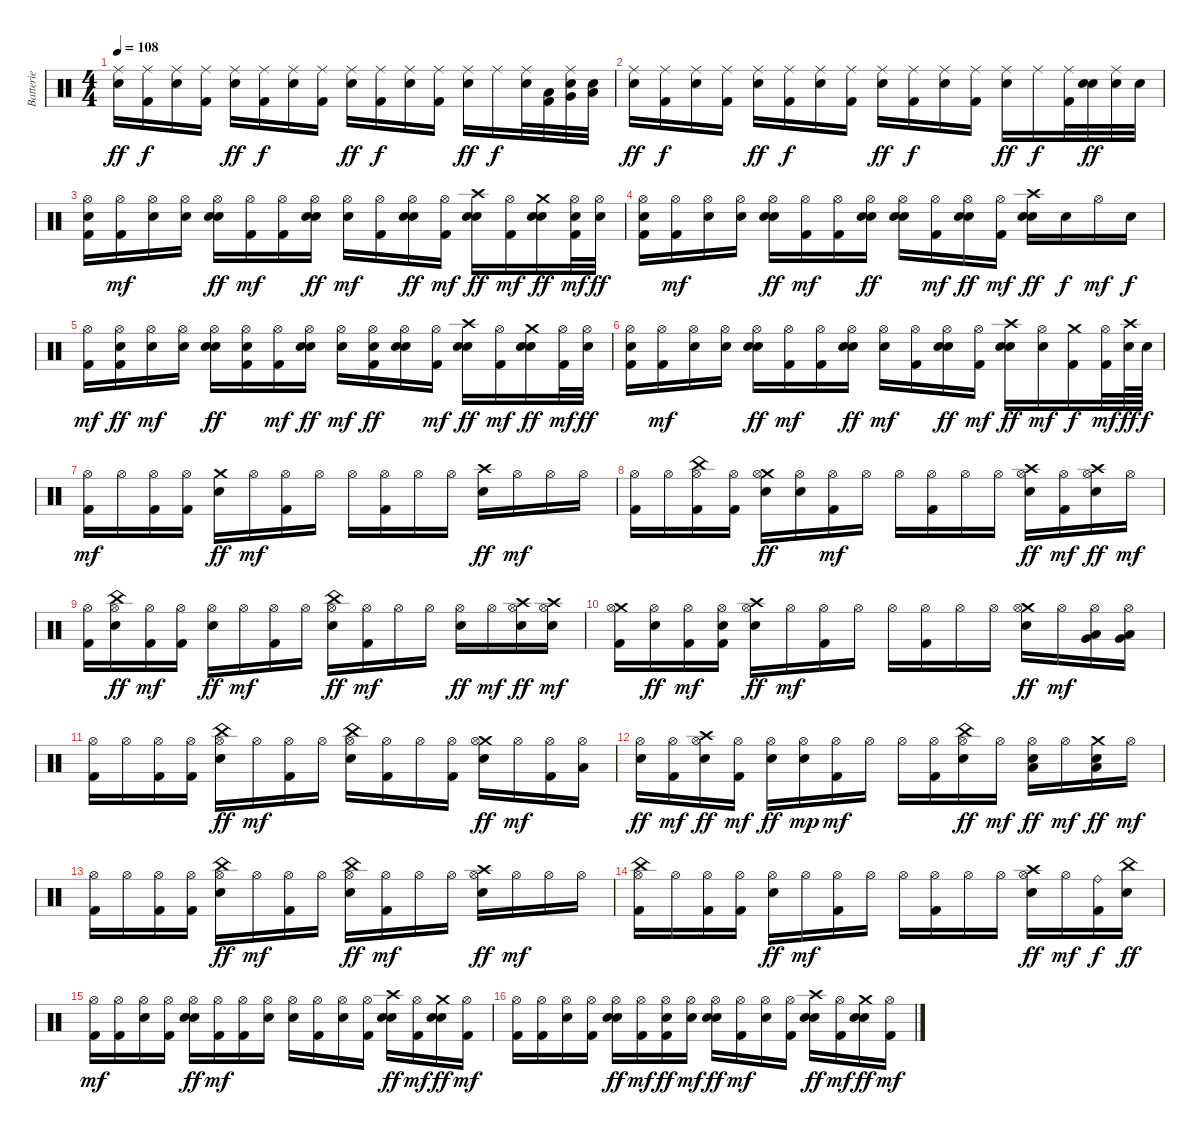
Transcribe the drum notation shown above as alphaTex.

\track ("Batterie" "Batterie") {instrument percussion}
\staff {score}
\articulation defaults
\ts (4 4)
\tempo 108
\clef neutral
\ks c
("Ride (middle)" "Snare (hit) 2").16{dy ff} ("Ride (middle)" "Kick (hit) 2").16{dy f} ("Ride (middle)" "Snare (hit)").16 ("Ride (middle)" "Kick (hit) 2").16 ("Ride (middle)" "Snare (hit) 2").16{dy ff} ("Ride (middle)" "Kick (hit) 2").16{dy f} ("Ride (middle)" "Snare (hit)").16 ("Ride (middle)" "Kick (hit) 2").16 ("Ride (middle)" "Snare (hit) 2").16{dy ff} ("Ride (middle)" "Kick (hit) 2").16{dy f} ("Ride (middle)" "Snare (hit)").16 ("Ride (middle)" "Kick (hit) 2").16 ("Ride (middle)" "Snare (hit) 2").16{dy ff} "Ride (middle)".16{dy f} ("Ride (middle)" "Snare (hit)").32 ("Low Tom (hit)" "Kick (hit) 2").32 ("Very Low Tom (hit)" "Ride (middle)" "Snare (hit)").32 ("Low Floor Tom (hit)" "Snare (hit)").32 |
("Ride (middle)" "Snare (hit) 2").16{dy ff} ("Ride (middle)" "Kick (hit) 2").16{dy f} ("Ride (middle)" "Snare (hit)").16 ("Ride (middle)" "Kick (hit) 2").16 ("Ride (middle)" "Snare (hit) 2").16{dy ff} ("Ride (middle)" "Kick (hit) 2").16{dy f} ("Ride (middle)" "Snare (hit)").16 ("Ride (middle)" "Kick (hit) 2").16 ("Ride (middle)" "Snare (hit) 2").16{dy ff} ("Ride (middle)" "Kick (hit) 2").16{dy f} ("Ride (middle)" "Snare (hit)").16 ("Ride (middle)" "Kick (hit) 2").16 ("Ride (middle)" "Snare (hit) 2").16{dy ff} "Ride (middle)".16{dy f} ("Ride (middle)" "Kick (hit) 2").32 ("Snare (hit) 2" "Snare (hit)").32{dy ff} ("Ride (middle)" "Snare (hit) 2").32 "Snare (hit) 2".32 |
("Hi-Hat (open)" "Snare (hit) 2" "Kick (hit) 2").16 ("Hi-Hat (open)" "Kick (hit) 2").16{dy mf} ("Hi-Hat (open)" "Snare (hit)").16 ("Hi-Hat (open)" "Snare (hit)").16 ("Hi-Hat (open)" "Snare (hit) 2" "Snare (hit)").16{dy ff} ("Hi-Hat (open)" "Kick (hit) 2").16{dy mf} ("Hi-Hat (open)" "Kick (hit) 2").16 ("Hi-Hat (open)" "Snare (hit) 2" "Snare (hit)").16{dy ff} ("Hi-Hat (open)" "Snare (hit)").16{dy mf} ("Hi-Hat (open)" "Kick (hit) 2").16 ("Hi-Hat (open)" "Snare (hit) 2" "Snare (hit)").16{dy ff} ("Hi-Hat (open)" "Kick (hit) 2").16{dy mf} ("Crash high (hit)" "Snare (hit) 2" "Snare (hit)").16{dy ff} ("Hi-Hat (open)" "Kick (hit) 2").16{dy mf} ("Crash medium (hit)" "Snare (hit) 2" "Snare (hit)").16{dy ff} ("Hi-Hat (open)" "Snare (hit) 2" "Kick (hit) 2").32{dy mf} ("Hi-Hat (open)" "Snare (hit) 2").32{dy ff} |
("Hi-Hat (open)" "Snare (hit) 2" "Kick (hit) 2").16 ("Hi-Hat (open)" "Kick (hit) 2").16{dy mf} ("Hi-Hat (open)" "Snare (hit)").16 ("Hi-Hat (open)" "Snare (hit)").16 ("Hi-Hat (open)" "Snare (hit) 2" "Snare (hit)").16{dy ff} ("Hi-Hat (open)" "Kick (hit) 2").16{dy mf} ("Hi-Hat (open)" "Kick (hit) 2").16 ("Hi-Hat (open)" "Snare (hit) 2" "Snare (hit)").16{dy ff} ("Hi-Hat (open)" "Snare (hit) 2" "Snare (hit)").16 ("Hi-Hat (open)" "Kick (hit) 2").16{dy mf} ("Hi-Hat (open)" "Snare (hit) 2" "Snare (hit)").16{dy ff} ("Hi-Hat (open)" "Kick (hit) 2").16{dy mf} ("Crash high (hit)" "Snare (hit) 2" "Snare (hit)").16{dy ff} "Snare (hit)".16{dy f} "Hi-Hat (open)".16{dy mf} "Snare (hit)".16{dy f} |
("Hi-Hat (open)" "Kick (hit) 2").16{dy mf} ("Hi-Hat (open)" "Snare (hit) 2" "Kick (hit) 2").16{dy ff} ("Hi-Hat (open)" "Snare (hit)").16{dy mf} ("Hi-Hat (open)" "Snare (hit)").16 ("Hi-Hat (open)" "Snare (hit) 2" "Snare (hit)").16{dy ff} ("Hi-Hat (open)" "Snare (hit) 2" "Kick (hit) 2").16 ("Hi-Hat (open)" "Kick (hit) 2").16{dy mf} ("Hi-Hat (open)" "Snare (hit) 2" "Snare (hit)").16{dy ff} ("Hi-Hat (open)" "Snare (hit)").16{dy mf} ("Hi-Hat (open)" "Snare (hit) 2" "Kick (hit) 2").16{dy ff} ("Hi-Hat (open)" "Snare (hit) 2" "Snare (hit)").16 ("Hi-Hat (open)" "Kick (hit) 2").16{dy mf} ("Crash high (hit)" "Snare (hit) 2" "Snare (hit)").16{dy ff} ("Hi-Hat (open)" "Kick (hit) 2").16{dy mf} ("Crash medium (hit)" "Snare (hit) 2" "Snare (hit)").16{dy ff} ("Hi-Hat (open)" "Kick (hit) 2").32{dy mf} ("Hi-Hat (open)" "Snare (hit) 2").32{dy ff} |
("Hi-Hat (open)" "Snare (hit) 2" "Kick (hit) 2").16 ("Hi-Hat (open)" "Kick (hit) 2").16{dy mf} ("Hi-Hat (open)" "Snare (hit)").16 ("Hi-Hat (open)" "Snare (hit)").16 ("Hi-Hat (open)" "Snare (hit) 2" "Snare (hit)").16{dy ff} ("Hi-Hat (open)" "Kick (hit) 2").16{dy mf} ("Hi-Hat (open)" "Kick (hit) 2").16 ("Hi-Hat (open)" "Snare (hit) 2" "Snare (hit)").16{dy ff} ("Hi-Hat (open)" "Snare (hit)").16{dy mf} ("Hi-Hat (open)" "Kick (hit) 2").16 ("Hi-Hat (open)" "Snare (hit) 2" "Snare (hit)").16{dy ff} ("Hi-Hat (open)" "Kick (hit) 2").16{dy mf} ("Crash high (hit)" "Snare (hit) 2" "Snare (hit)").16{dy ff} ("Hi-Hat (open)" "Snare (hit)").16{dy mf} ("Crash medium (hit)" "Kick (hit) 2").16{dy f} ("Hi-Hat (open)" "Kick (hit) 2").32{dy mf} ("Crash high (hit)" "Snare (hit) 2").64{dy ff} "Snare (hit) 2".64{dy f} |
("Hi-Hat (open)" "Kick (hit) 2").16{dy mf} "Hi-Hat (open)".16 ("Hi-Hat (open)" "Kick (hit) 2").16 ("Hi-Hat (open)" "Kick (hit) 2").16 ("Crash medium (hit)" "Snare (hit) 2").16{dy ff} "Hi-Hat (open)".16{dy mf} ("Hi-Hat (open)" "Kick (hit) 2").16 "Hi-Hat (open)".16 "Hi-Hat (open)".16 ("Hi-Hat (open)" "Kick (hit) 2").16 "Hi-Hat (open)".16 "Hi-Hat (open)".16 ("Crash high (hit)" "Snare (hit) 2").16{dy ff} "Hi-Hat (open)".16{dy mf} "Hi-Hat (open)".16 "Hi-Hat (open)".16 |
("Hi-Hat (open)" "Kick (hit) 2").16 "Hi-Hat (open)".16 ("China (hit)" "Hi-Hat (open)" "Kick (hit) 2").16 ("Hi-Hat (open)" "Kick (hit) 2").16 ("Crash medium (hit)" "Hi-Hat (open)" "Snare (hit) 2").16{dy ff} ("Hi-Hat (open)" "Snare (hit) 2").16 ("Hi-Hat (open)" "Kick (hit) 2").16{dy mf} "Hi-Hat (open)".16 "Hi-Hat (open)".16 ("Hi-Hat (open)" "Kick (hit) 2").16 "Hi-Hat (open)".16 "Hi-Hat (open)".16 ("Crash high (hit)" "Hi-Hat (open)" "Snare (hit) 2").16{dy ff} ("Hi-Hat (open)" "Kick (hit) 2").16{dy mf} ("Crash high (hit)" "Hi-Hat (open)" "Snare (hit) 2").16{dy ff} "Hi-Hat (open)".16{dy mf} |
("Hi-Hat (open)" "Kick (hit) 2").16 ("China (hit)" "Hi-Hat (open)" "Snare (hit) 2").16{dy ff} ("Hi-Hat (open)" "Kick (hit) 2").16{dy mf} ("Hi-Hat (open)" "Kick (hit) 2").16 ("Hi-Hat (open)" "Snare (hit) 2").16{dy ff} "Hi-Hat (open)".16{dy mf} ("Hi-Hat (open)" "Kick (hit) 2").16 "Hi-Hat (open)".16 ("China (hit)" "Hi-Hat (open)" "Snare (hit) 2").16{dy ff} ("Hi-Hat (open)" "Kick (hit) 2").16{dy mf} "Hi-Hat (open)".16 "Hi-Hat (open)".16 ("Hi-Hat (open)" "Snare (hit) 2").16{dy ff} "Hi-Hat (open)".16{dy mf} ("Crash high (hit)" "Hi-Hat (open)" "Snare (hit) 2").16{dy ff} ("Crash high (hit)" "Hi-Hat (open)" "Snare (hit) 2").16{dy mf} |
("Crash medium (hit)" "Hi-Hat (open)" "Kick (hit) 2").16 ("Hi-Hat (open)" "Snare (hit) 2").16{dy ff} ("Hi-Hat (open)" "Kick (hit) 2").16{dy mf} ("Hi-Hat (open)" "Snare (hit) 2" "Kick (hit) 2").16 ("Crash high (hit)" "Hi-Hat (open)" "Snare (hit) 2").16{dy ff} "Hi-Hat (open)".16{dy mf} ("Hi-Hat (open)" "Kick (hit) 2").16 "Hi-Hat (open)".16 "Hi-Hat (open)".16 ("Hi-Hat (open)" "Kick (hit) 2").16 "Hi-Hat (open)".16 "Hi-Hat (open)".16 ("Crash medium (hit)" "Hi-Hat (open)" "Snare (hit) 2").16{dy ff} "Hi-Hat (open)".16{dy mf} ("Very Low Tom (hit)" "Hi-Hat (open)" "Low Floor Tom (hit)").16 ("Very Low Tom (hit)" "Hi-Hat (open)" "Low Floor Tom (hit)").16 |
("Hi-Hat (open)" "Kick (hit) 2").16 "Hi-Hat (open)".16 ("Hi-Hat (open)" "Kick (hit) 2").16 ("Hi-Hat (open)" "Kick (hit) 2").16 ("China (hit)" "Hi-Hat (open)" "Snare (hit) 2").16{dy ff} "Hi-Hat (open)".16{dy mf} ("Hi-Hat (open)" "Kick (hit) 2").16 "Hi-Hat (open)".16 ("China (hit)" "Hi-Hat (open)" "Snare (hit) 2").16 ("Hi-Hat (open)" "Kick (hit) 2").16 "Hi-Hat (open)".16 ("Hi-Hat (open)" "Kick (hit) 2").16 ("Crash medium (hit)" "Hi-Hat (open)" "Snare (hit) 2").16{dy ff} "Hi-Hat (open)".16{dy mf} ("Hi-Hat (open)" "Kick (hit) 2").16 ("Hi-Hat (open)" "Low Tom (hit)").16 |
("Hi-Hat (open)" "Snare (hit) 2").16{dy ff} ("Hi-Hat (open)" "Kick (hit) 2").16{dy mf} ("Crash high (hit)" "Hi-Hat (open)" "Snare (hit) 2").16{dy ff} ("Hi-Hat (open)" "Kick (hit) 2").16{dy mf} ("Hi-Hat (open)" "Snare (hit) 2").16{dy ff} ("Hi-Hat (open)" "Snare (hit) 2").16{dy mp} ("Hi-Hat (open)" "Kick (hit) 2").16{dy mf} "Hi-Hat (open)".16 "Hi-Hat (open)".16 ("Hi-Hat (open)" "Kick (hit) 2").16 ("China (hit)" "Hi-Hat (open)" "Snare (hit) 2").16{dy ff} "Hi-Hat (open)".16{dy mf} ("Hi-Hat (open)" "Low Floor Tom (hit)" "Snare (hit) 2").16{dy ff} "Hi-Hat (open)".16{dy mf} ("Crash medium (hit)" "Low Floor Tom (hit)" "Snare (hit) 2").16{dy ff} "Hi-Hat (open)".16{dy mf} |
("Hi-Hat (open)" "Kick (hit) 2").16 "Hi-Hat (open)".16 ("Hi-Hat (open)" "Kick (hit) 2").16 ("Hi-Hat (open)" "Kick (hit) 2").16 ("China (hit)" "Hi-Hat (open)" "Snare (hit) 2").16{dy ff} "Hi-Hat (open)".16{dy mf} ("Hi-Hat (open)" "Kick (hit) 2").16 "Hi-Hat (open)".16 ("China (hit)" "Hi-Hat (open)" "Snare (hit) 2").16{dy ff} ("Hi-Hat (open)" "Kick (hit) 2").16{dy mf} "Hi-Hat (open)".16 "Hi-Hat (open)".16 ("Crash high (hit)" "Hi-Hat (open)" "Snare (hit) 2").16{dy ff} "Hi-Hat (open)".16{dy mf} "Hi-Hat (open)".16 "Hi-Hat (open)".16 |
("China (hit)" "Hi-Hat (open)" "Kick (hit) 2").16 "Hi-Hat (open)".16 ("Hi-Hat (open)" "Kick (hit) 2").16 ("Hi-Hat (open)" "Kick (hit) 2").16 ("Hi-Hat (open)" "Snare (hit) 2").16{dy ff} "Hi-Hat (open)".16{dy mf} ("Hi-Hat (open)" "Kick (hit) 2").16 "Hi-Hat (open)".16 "Hi-Hat (open)".16 ("Hi-Hat (open)" "Kick (hit) 2").16 "Hi-Hat (open)".16 "Hi-Hat (open)".16 ("Crash high (hit)" "Hi-Hat (open)" "Snare (hit) 2").16{dy ff} "Hi-Hat (open)".16{dy mf} ("Ride (bell)" "Kick (hit) 2").16{dy f} ("China (hit)" "Snare (hit) 2").16{dy ff} |
("Hi-Hat (open)" "Kick (hit) 2").16{dy mf} ("Hi-Hat (open)" "Kick (hit) 2").16 ("Hi-Hat (open)" "Snare (hit)").16 ("Hi-Hat (open)" "Kick (hit) 2").16 ("Hi-Hat (open)" "Snare (hit) 2" "Snare (hit)").16{dy ff} ("Hi-Hat (open)" "Kick (hit) 2").16{dy mf} ("Hi-Hat (open)" "Kick (hit) 2").16 ("Hi-Hat (open)" "Snare (hit)").16 ("Hi-Hat (open)" "Snare (hit)").16 ("Hi-Hat (open)" "Kick (hit) 2").16 ("Hi-Hat (open)" "Snare (hit)").16 ("Hi-Hat (open)" "Kick (hit) 2").16 ("Crash high (hit)" "Snare (hit) 2" "Snare (hit)").16{dy ff} ("Hi-Hat (open)" "Kick (hit) 2").16{dy mf} ("Crash medium (hit)" "Snare (hit) 2" "Snare (hit)").16{dy ff} ("Hi-Hat (open)" "Kick (hit) 2").16{dy mf} |
("Hi-Hat (open)" "Kick (hit) 2").16 ("Hi-Hat (open)" "Kick (hit) 2").16 ("Hi-Hat (open)" "Snare (hit)").16 ("Hi-Hat (open)" "Kick (hit) 2").16 ("Hi-Hat (open)" "Snare (hit) 2" "Snare (hit)").16{dy ff} ("Hi-Hat (open)" "Kick (hit) 2").16{dy mf} ("Hi-Hat (open)" "Snare (hit) 2" "Kick (hit) 2").16{dy ff} ("Hi-Hat (open)" "Snare (hit)").16{dy mf} ("Hi-Hat (open)" "Snare (hit) 2" "Snare (hit)").16{dy ff} ("Hi-Hat (open)" "Kick (hit) 2").16{dy mf} ("Hi-Hat (open)" "Snare (hit)").16 ("Hi-Hat (open)" "Kick (hit) 2").16 ("Crash high (hit)" "Snare (hit) 2" "Snare (hit)").16{dy ff} ("Hi-Hat (open)" "Kick (hit) 2").16{dy mf} ("Crash medium (hit)" "Snare (hit) 2" "Snare (hit)").16{dy ff} ("Hi-Hat (open)" "Kick (hit) 2").16{dy mf}
